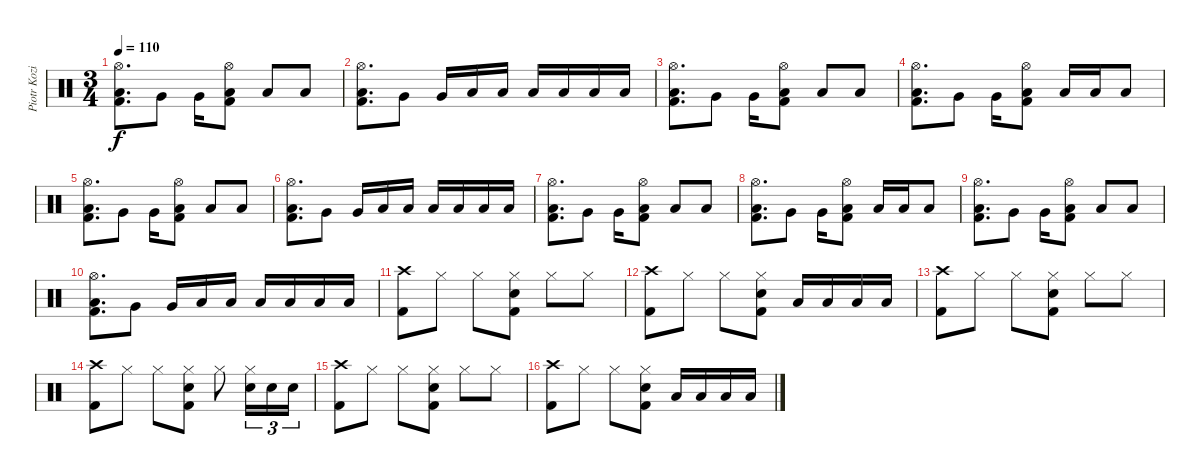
\track ("Piotr Kozieradzki" "Piotr Kozi") {instrument percussion}
\staff {score}
\articulation defaults
\ts (3 4)
\tempo 110
\clef neutral
\ks c
("Hi-Hat (open)" "Low Tom (hit)" "Kick (hit) 2").8{d dy f} "Very Low Tom (hit)".8 "Very Low Tom (hit)".16 ("Hi-Hat (open)" "Low Tom (hit)" "Kick (hit) 2").8 "Low Tom (hit)".8 "Low Tom (hit)".8 |
("Hi-Hat (open)" "Low Tom (hit)" "Kick (hit) 2").8{d} "Very Low Tom (hit)".8 "Very Low Tom (hit)".16 "Low Tom (hit)".16 "Low Tom (hit)".16 "Low Tom (hit)".16 "Low Tom (hit)".16 "Low Tom (hit)".16 "Low Tom (hit)".16 |
("Hi-Hat (open)" "Low Tom (hit)" "Kick (hit) 2").8{d} "Very Low Tom (hit)".8 "Very Low Tom (hit)".16 ("Hi-Hat (open)" "Low Tom (hit)" "Kick (hit) 2").8 "Low Tom (hit)".8 "Low Tom (hit)".8 |
("Hi-Hat (open)" "Low Tom (hit)" "Kick (hit) 2").8{d} "Very Low Tom (hit)".8 "Very Low Tom (hit)".16 ("Hi-Hat (open)" "Low Tom (hit)" "Kick (hit) 2").8 "Low Tom (hit)".16 "Low Tom (hit)".16 "Low Tom (hit)".8 |
("Hi-Hat (open)" "Low Tom (hit)" "Kick (hit) 2").8{d} "Very Low Tom (hit)".8 "Very Low Tom (hit)".16 ("Hi-Hat (open)" "Low Tom (hit)" "Kick (hit) 2").8 "Low Tom (hit)".8 "Low Tom (hit)".8 |
("Hi-Hat (open)" "Low Tom (hit)" "Kick (hit) 2").8{d} "Very Low Tom (hit)".8 "Very Low Tom (hit)".16 "Low Tom (hit)".16 "Low Tom (hit)".16 "Low Tom (hit)".16 "Low Tom (hit)".16 "Low Tom (hit)".16 "Low Tom (hit)".16 |
("Hi-Hat (open)" "Low Tom (hit)" "Kick (hit) 2").8{d} "Very Low Tom (hit)".8 "Very Low Tom (hit)".16 ("Hi-Hat (open)" "Low Tom (hit)" "Kick (hit) 2").8 "Low Tom (hit)".8 "Low Tom (hit)".8 |
("Hi-Hat (open)" "Low Tom (hit)" "Kick (hit) 2").8{d} "Very Low Tom (hit)".8 "Very Low Tom (hit)".16 ("Hi-Hat (open)" "Low Tom (hit)" "Kick (hit) 2").8 "Low Tom (hit)".16 "Low Tom (hit)".16 "Low Tom (hit)".8 |
("Hi-Hat (open)" "Low Tom (hit)" "Kick (hit) 2").8{d} "Very Low Tom (hit)".8 "Very Low Tom (hit)".16 ("Hi-Hat (open)" "Low Tom (hit)" "Kick (hit) 2").8 "Low Tom (hit)".8 "Low Tom (hit)".8 |
("Hi-Hat (open)" "Low Tom (hit)" "Kick (hit) 2").8{d} "Very Low Tom (hit)".8 "Very Low Tom (hit)".16 "Low Tom (hit)".16 "Low Tom (hit)".16 "Low Tom (hit)".16 "Low Tom (hit)".16 "Low Tom (hit)".16 "Low Tom (hit)".16 |
("Crash high (hit)" "Kick (hit) 2").8 "Hi-Hat (closed)".8 "Hi-Hat (closed)".8 ("Hi-Hat (closed)" "Electric Snare (hit)" "Kick (hit) 2").8 "Hi-Hat (closed)".8 "Hi-Hat (closed)".8 |
("Crash high (hit)" "Kick (hit) 2").8 "Hi-Hat (closed)".8 "Hi-Hat (closed)".8 ("Hi-Hat (closed)" "Electric Snare (hit)" "Kick (hit) 2").8 "Low Tom (hit)".16 "Low Tom (hit)".16 "Low Tom (hit)".16 "Low Tom (hit)".16 |
("Crash high (hit)" "Kick (hit) 2").8 "Hi-Hat (closed)".8 "Hi-Hat (closed)".8 ("Hi-Hat (closed)" "Electric Snare (hit)" "Kick (hit) 2").8 "Hi-Hat (closed)".8 "Hi-Hat (closed)".8 |
("Crash high (hit)" "Kick (hit) 2").8 "Hi-Hat (closed)".8 "Hi-Hat (closed)".8 ("Hi-Hat (closed)" "Electric Snare (hit)" "Kick (hit) 2").8 "Hi-Hat (closed)".8 ("Hi-Hat (closed)" "Electric Snare (hit)").16{tu (3 2)} "Electric Snare (hit)".16{tu (3 2)} "Electric Snare (hit)".16{tu (3 2)} |
("Crash high (hit)" "Kick (hit) 2").8 "Hi-Hat (closed)".8 "Hi-Hat (closed)".8 ("Hi-Hat (closed)" "Electric Snare (hit)" "Kick (hit) 2").8 "Hi-Hat (closed)".8 "Hi-Hat (closed)".8 |
("Crash high (hit)" "Kick (hit) 2").8 "Hi-Hat (closed)".8 "Hi-Hat (closed)".8 ("Hi-Hat (closed)" "Electric Snare (hit)" "Kick (hit) 2").8 "Low Tom (hit)".16 "Low Tom (hit)".16 "Low Tom (hit)".16 "Low Tom (hit)".16
